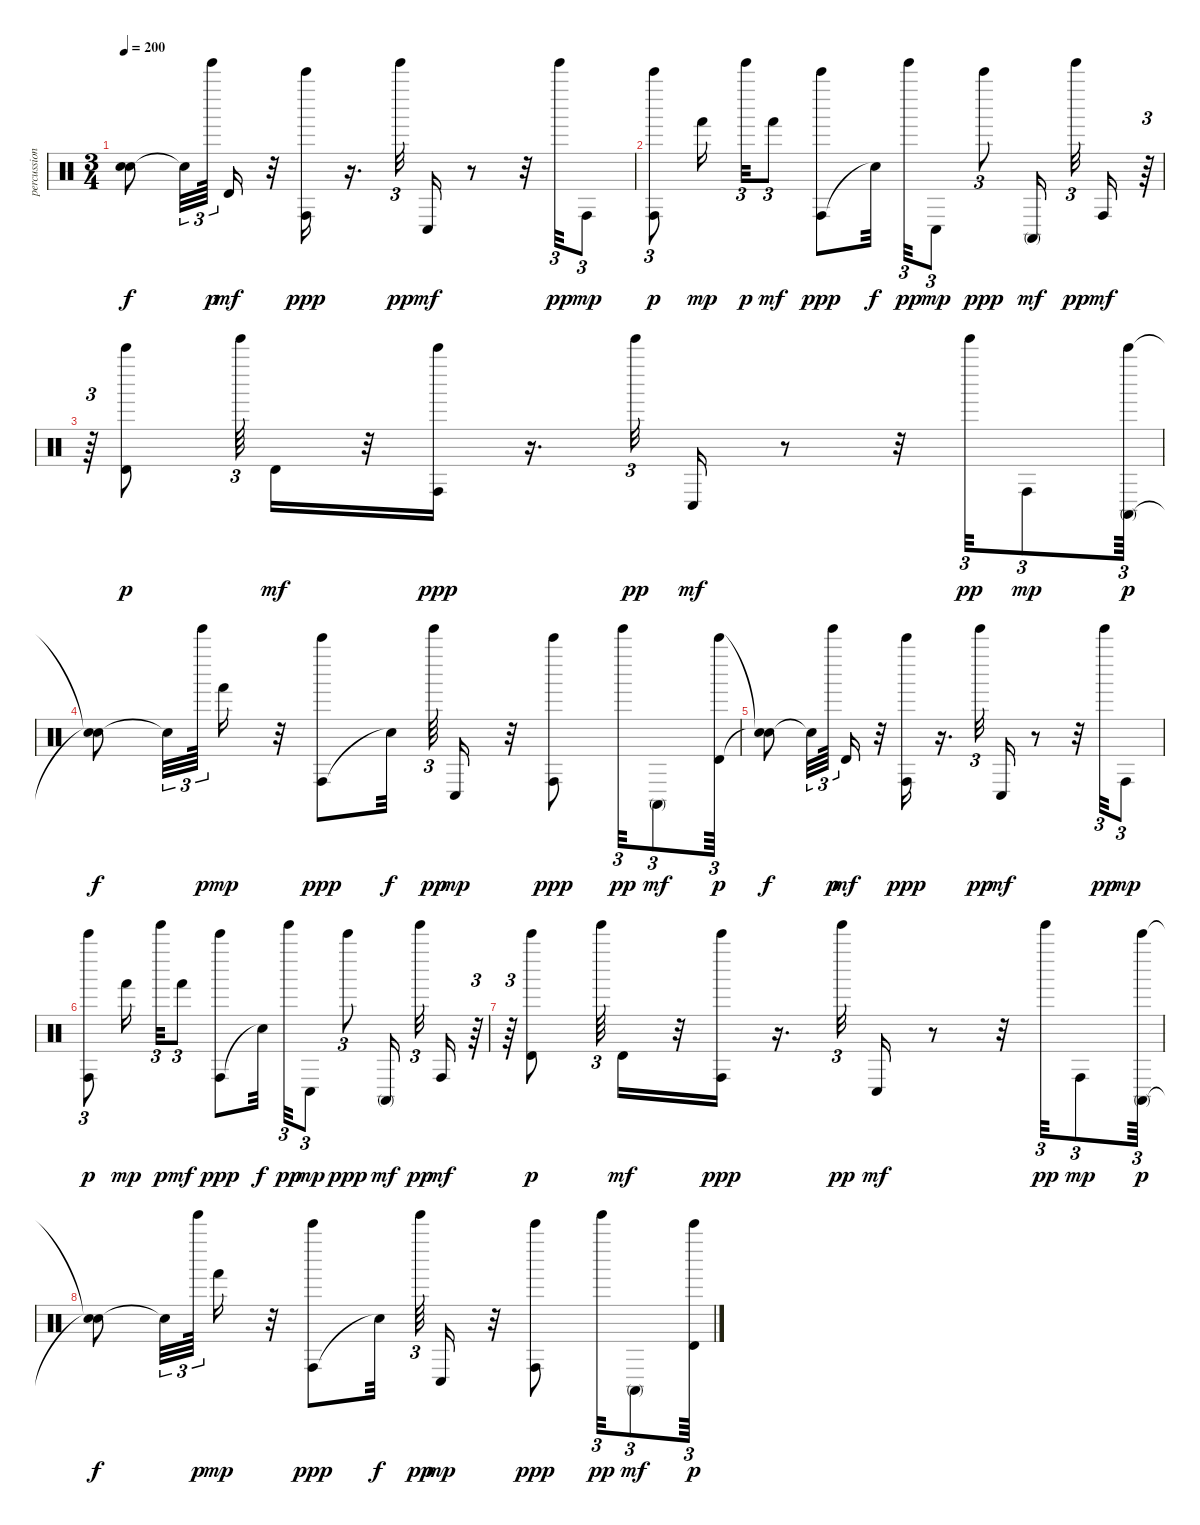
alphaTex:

\track ("percussion" "percussion") {instrument percussion}
\staff {score}
\articulation defaults
\ts (3 4)
\tempo 200
\clef neutral
\ks c
("Snare (hit)"{t} "Snare (hit)"{t}).8{dy f} "Snare (hit)"{t}.32{tu (3 2)} "Tinkle Bell (hit)".64{tu (3 2) dy p} "Timbale high (hit)".16{dy mf} r.32 ("Conga high (hit)" "Bell Tree (hit)").16{dy ppp} r.16{d} "Tinkle Bell (hit)".32{tu (3 2) dy pp} "Conga low (hit)".16{dy mf} r.8 r.32 "Tinkle Bell (hit)".32{tu (3 2) dy pp} "Conga high (hit)".8{tu (3 2) dy mp} |
("Conga high (hit)" "Bell Tree (hit)").8{tu (3 2) dy p} "Hand (hit)".16{dy mp} "Tinkle Bell (hit)".32{tu (3 2) dy p} "Hand (hit)".8{tu (3 2) dy mf} ("Conga high (hit)" "Bell Tree (hit)").8{dy ppp} "Snare (hit)"{t}.32{dy f} "Tinkle Bell (hit)".32{tu (3 2) dy pp} "Conga low (hit)".8{tu (3 2) dy mp} "Bell Tree (hit)".8{tu (3 2) dy ppp} "Conga high (mute)".16{dy mf} "Tinkle Bell (hit)".32{tu (3 2) dy pp} "Conga high (hit)".16{dy mf} r.64{tu (3 2)} |
r.64{tu (3 2)} ("Timbale high (hit)" "Bell Tree (hit)").8{dy p} "Tinkle Bell (hit)".64{tu (3 2)} "Timbale high (hit)".16{dy mf} r.32 ("Conga high (hit)" "Bell Tree (hit)").16{dy ppp} r.16{d} "Tinkle Bell (hit)".32{tu (3 2) dy pp} "Conga low (hit)".16{dy mf} r.8 r.32 "Tinkle Bell (hit)".32{tu (3 2) dy pp} "Conga high (hit)".8{tu (3 2) dy mp} ("Conga high (mute)" "Bell Tree (hit)").64{tu (3 2) dy p} |
("Snare (hit)"{t} "Snare (hit)"{t}).8{dy f} "Snare (hit)"{t}.32{tu (3 2)} "Tinkle Bell (hit)".64{tu (3 2) dy p} "Hand (hit)".16{dy mp} r.32 ("Conga high (hit)" "Bell Tree (hit)").8{dy ppp} "Snare (hit)"{t}.32{dy f} "Tinkle Bell (hit)".64{tu (3 2) dy pp} "Conga low (hit)".16{dy mp} r.32 ("Conga high (hit)" "Bell Tree (hit)").8{dy ppp} "Tinkle Bell (hit)".32{tu (3 2) dy pp} "Conga high (mute)".8{tu (3 2) dy mf} ("Timbale high (hit)" "Bell Tree (hit)").64{tu (3 2) dy p} |
("Snare (hit)"{t} "Snare (hit)"{t}).8{dy f} "Snare (hit)"{t}.32{tu (3 2)} "Tinkle Bell (hit)".64{tu (3 2) dy p} "Timbale high (hit)".16{dy mf} r.32 ("Conga high (hit)" "Bell Tree (hit)").16{dy ppp} r.16{d} "Tinkle Bell (hit)".32{tu (3 2) dy pp} "Conga low (hit)".16{dy mf} r.8 r.32 "Tinkle Bell (hit)".32{tu (3 2) dy pp} "Conga high (hit)".8{tu (3 2) dy mp} |
("Conga high (hit)" "Bell Tree (hit)").8{tu (3 2) dy p} "Hand (hit)".16{dy mp} "Tinkle Bell (hit)".32{tu (3 2) dy p} "Hand (hit)".8{tu (3 2) dy mf} ("Conga high (hit)" "Bell Tree (hit)").8{dy ppp} "Snare (hit)"{t}.32{dy f} "Tinkle Bell (hit)".32{tu (3 2) dy pp} "Conga low (hit)".8{tu (3 2) dy mp} "Bell Tree (hit)".8{tu (3 2) dy ppp} "Conga high (mute)".16{dy mf} "Tinkle Bell (hit)".32{tu (3 2) dy pp} "Conga high (hit)".16{dy mf} r.64{tu (3 2)} |
r.64{tu (3 2)} ("Timbale high (hit)" "Bell Tree (hit)").8{dy p} "Tinkle Bell (hit)".64{tu (3 2)} "Timbale high (hit)".16{dy mf} r.32 ("Conga high (hit)" "Bell Tree (hit)").16{dy ppp} r.16{d} "Tinkle Bell (hit)".32{tu (3 2) dy pp} "Conga low (hit)".16{dy mf} r.8 r.32 "Tinkle Bell (hit)".32{tu (3 2) dy pp} "Conga high (hit)".8{tu (3 2) dy mp} ("Conga high (mute)" "Bell Tree (hit)").64{tu (3 2) dy p} |
("Snare (hit)"{t} "Snare (hit)"{t}).8{dy f} "Snare (hit)"{t}.32{tu (3 2)} "Tinkle Bell (hit)".64{tu (3 2) dy p} "Hand (hit)".16{dy mp} r.32 ("Conga high (hit)" "Bell Tree (hit)").8{dy ppp} "Snare (hit)"{t}.32{dy f} "Tinkle Bell (hit)".64{tu (3 2) dy pp} "Conga low (hit)".16{dy mp} r.32 ("Conga high (hit)" "Bell Tree (hit)").8{dy ppp} "Tinkle Bell (hit)".32{tu (3 2) dy pp} "Conga high (mute)".8{tu (3 2) dy mf} ("Timbale high (hit)" "Bell Tree (hit)").64{tu (3 2) dy p}
